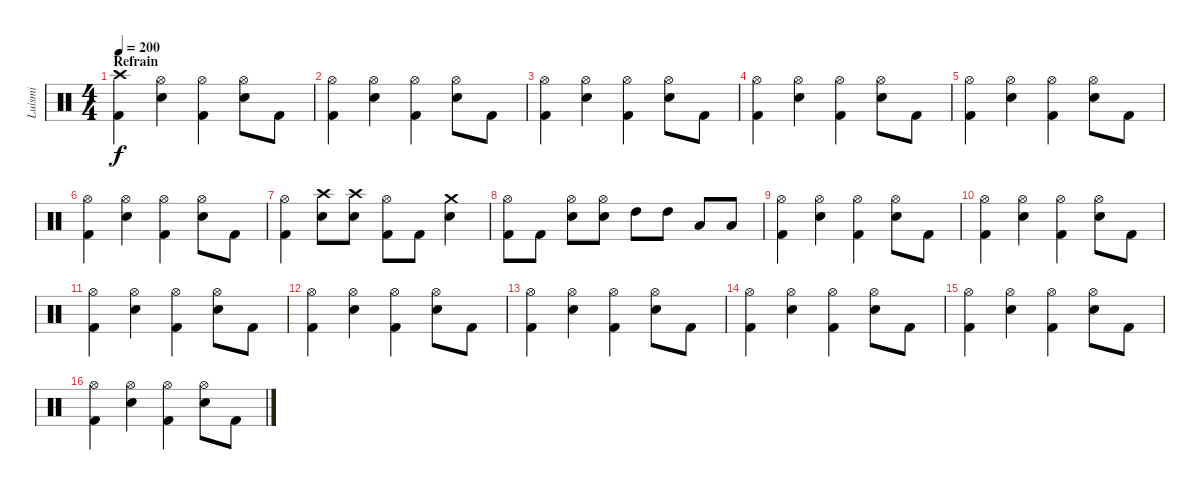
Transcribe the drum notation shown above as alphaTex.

\track ("Luismi" "Luismi") {instrument percussion}
\staff {score}
\articulation defaults
\ts (4 4)
\section ("" "Refrain")
\tempo 200
\clef neutral
\ks c
("Crash high (hit)" "Kick (hit) 2").4{dy f} ("Hi-Hat (open)" "Electric Snare (hit)").4 ("Hi-Hat (open)" "Kick (hit) 2").4 ("Hi-Hat (open)" "Electric Snare (hit)").8 "Kick (hit) 2".8 |
("Hi-Hat (open)" "Kick (hit) 2").4 ("Hi-Hat (open)" "Electric Snare (hit)").4 ("Hi-Hat (open)" "Kick (hit) 2").4 ("Hi-Hat (open)" "Electric Snare (hit)").8 "Kick (hit) 2".8 |
("Hi-Hat (open)" "Kick (hit) 2").4 ("Hi-Hat (open)" "Electric Snare (hit)").4 ("Hi-Hat (open)" "Kick (hit) 2").4 ("Hi-Hat (open)" "Electric Snare (hit)").8 "Kick (hit) 2".8 |
("Hi-Hat (open)" "Kick (hit) 2").4 ("Hi-Hat (open)" "Electric Snare (hit)").4 ("Hi-Hat (open)" "Kick (hit) 2").4 ("Hi-Hat (open)" "Electric Snare (hit)").8 "Kick (hit) 2".8 |
("Hi-Hat (open)" "Kick (hit) 2").4 ("Hi-Hat (open)" "Electric Snare (hit)").4 ("Hi-Hat (open)" "Kick (hit) 2").4 ("Hi-Hat (open)" "Electric Snare (hit)").8 "Kick (hit) 2".8 |
("Hi-Hat (open)" "Kick (hit) 2").4 ("Hi-Hat (open)" "Electric Snare (hit)").4 ("Hi-Hat (open)" "Kick (hit) 2").4 ("Hi-Hat (open)" "Electric Snare (hit)").8 "Kick (hit) 2".8 |
("Hi-Hat (open)" "Kick (hit) 2").4 ("Crash high (hit)" "Electric Snare (hit)").8 ("Crash high (hit)" "Electric Snare (hit)").8 ("Hi-Hat (open)" "Kick (hit) 2").8 "Kick (hit) 2".8 ("Crash medium (hit)" "Electric Snare (hit)").4 |
("Hi-Hat (open)" "Kick (hit) 2").8 "Kick (hit) 2".8 ("Hi-Hat (open)" "Electric Snare (hit)").8 ("Hi-Hat (open)" "Electric Snare (hit)").8 "High Tom (hit)".8 "High Tom (hit)".8 "Low Tom (hit)".8 "Low Tom (hit)".8 |
("Hi-Hat (open)" "Kick (hit) 2").4 ("Hi-Hat (open)" "Electric Snare (hit)").4 ("Hi-Hat (open)" "Kick (hit) 2").4 ("Hi-Hat (open)" "Electric Snare (hit)").8 "Kick (hit) 2".8 |
("Hi-Hat (open)" "Kick (hit) 2").4 ("Hi-Hat (open)" "Electric Snare (hit)").4 ("Hi-Hat (open)" "Kick (hit) 2").4 ("Hi-Hat (open)" "Electric Snare (hit)").8 "Kick (hit) 2".8 |
("Hi-Hat (open)" "Kick (hit) 2").4 ("Hi-Hat (open)" "Electric Snare (hit)").4 ("Hi-Hat (open)" "Kick (hit) 2").4 ("Hi-Hat (open)" "Electric Snare (hit)").8 "Kick (hit) 2".8 |
("Hi-Hat (open)" "Kick (hit) 2").4 ("Hi-Hat (open)" "Electric Snare (hit)").4 ("Hi-Hat (open)" "Kick (hit) 2").4 ("Hi-Hat (open)" "Electric Snare (hit)").8 "Kick (hit) 2".8 |
("Hi-Hat (open)" "Kick (hit) 2").4 ("Hi-Hat (open)" "Electric Snare (hit)").4 ("Hi-Hat (open)" "Kick (hit) 2").4 ("Hi-Hat (open)" "Electric Snare (hit)").8 "Kick (hit) 2".8 |
("Hi-Hat (open)" "Kick (hit) 2").4 ("Hi-Hat (open)" "Electric Snare (hit)").4 ("Hi-Hat (open)" "Kick (hit) 2").4 ("Hi-Hat (open)" "Electric Snare (hit)").8 "Kick (hit) 2".8 |
("Hi-Hat (open)" "Kick (hit) 2").4 ("Hi-Hat (open)" "Electric Snare (hit)").4 ("Hi-Hat (open)" "Kick (hit) 2").4 ("Hi-Hat (open)" "Electric Snare (hit)").8 "Kick (hit) 2".8 |
("Hi-Hat (open)" "Kick (hit) 2").4 ("Hi-Hat (open)" "Electric Snare (hit)").4 ("Hi-Hat (open)" "Kick (hit) 2").4 ("Hi-Hat (open)" "Electric Snare (hit)").8 "Kick (hit) 2".8
